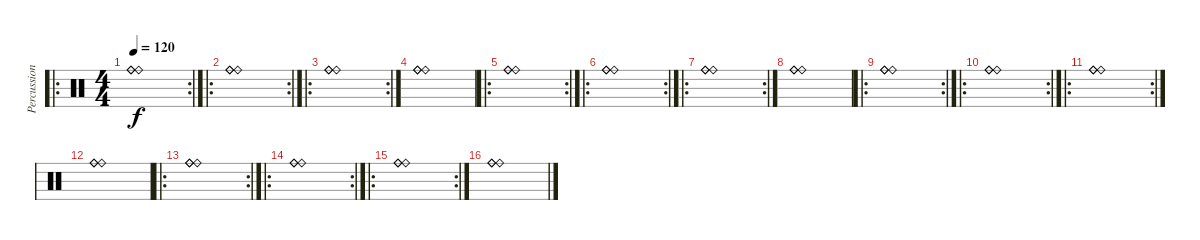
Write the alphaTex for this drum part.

\track ("Percussion" "Percussion") {instrument percussion}
\staff {score}
\articulation defaults
\ro
\rc 2
\ts (4 4)
\tempo 120
\clef neutral
\ks c
("Ride (bell)" "Ride (bell)" "Ride (bell)").1{dy f} |
\ro
\rc 2
("Ride (bell)" "Ride (bell)" "Ride (bell)").1 |
\ro
\rc 2
("Ride (bell)" "Ride (bell)" "Ride (bell)").1 |
("Ride (bell)" "Ride (bell)" "Ride (bell)").1 |
\ro
\rc 2
("Ride (bell)" "Ride (bell)" "Ride (bell)").1 |
\ro
\rc 2
("Ride (bell)" "Ride (bell)" "Ride (bell)").1 |
\ro
\rc 2
("Ride (bell)" "Ride (bell)" "Ride (bell)").1 |
("Ride (bell)" "Ride (bell)" "Ride (bell)").1 |
\ro
\rc 2
("Ride (bell)" "Ride (bell)" "Ride (bell)").1 |
\ro
\rc 2
("Ride (bell)" "Ride (bell)" "Ride (bell)").1 |
\ro
\rc 2
("Ride (bell)" "Ride (bell)" "Ride (bell)").1 |
("Ride (bell)" "Ride (bell)" "Ride (bell)").1 |
\ro
\rc 2
("Ride (bell)" "Ride (bell)" "Ride (bell)").1 |
\ro
\rc 2
("Ride (bell)" "Ride (bell)" "Ride (bell)").1 |
\ro
\rc 2
("Ride (bell)" "Ride (bell)" "Ride (bell)").1 |
("Ride (bell)" "Ride (bell)" "Ride (bell)").1
